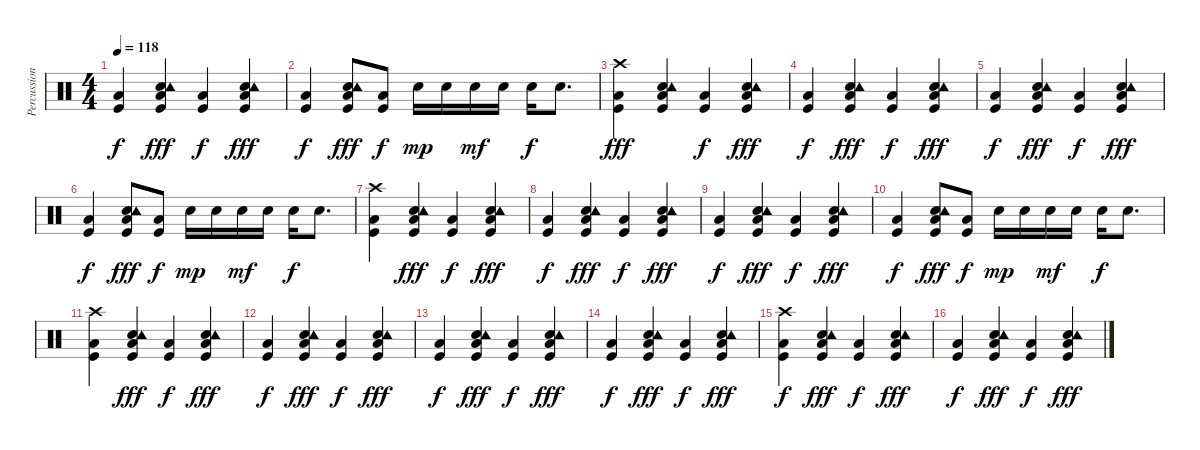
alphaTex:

\track ("Percussion" "Percussion") {instrument percussion}
\staff {score}
\articulation defaults
\ts (4 4)
\tempo 118
\clef neutral
\ks c
("Kick (hit)" "Low Floor Tom (hit)").4{dy f} ("Snare (hit) 2" "Tambourine (hit)" "Kick (hit)" "Low Floor Tom (hit)").4{dy fff} ("Kick (hit)" "Low Floor Tom (hit)").4{dy f} ("Snare (hit) 2" "Tambourine (hit)" "Kick (hit)" "Low Floor Tom (hit)").4{dy fff} |
("Kick (hit)" "Low Floor Tom (hit)").4{dy f} ("Snare (hit) 2" "Tambourine (hit)" "Kick (hit)" "Low Floor Tom (hit)").8{dy fff} ("Kick (hit)" "Low Floor Tom (hit)").8{dy f} "Snare (hit) 2".16{dy mp} "Snare (hit) 2".16 "Snare (hit) 2".16{dy mf} "Snare (hit) 2".16 "Snare (hit) 2".16{dy f} "Snare (hit) 2".8{d} |
("Crash high (hit)" "Kick (hit)" "Low Floor Tom (hit)").4{dy fff} ("Snare (hit) 2" "Tambourine (hit)" "Kick (hit)" "Low Floor Tom (hit)").4 ("Kick (hit)" "Low Floor Tom (hit)").4{dy f} ("Snare (hit) 2" "Tambourine (hit)" "Kick (hit)" "Low Floor Tom (hit)").4{dy fff} |
("Kick (hit)" "Low Floor Tom (hit)").4{dy f} ("Snare (hit) 2" "Tambourine (hit)" "Kick (hit)" "Low Floor Tom (hit)").4{dy fff} ("Kick (hit)" "Low Floor Tom (hit)").4{dy f} ("Snare (hit) 2" "Tambourine (hit)" "Kick (hit)" "Low Floor Tom (hit)").4{dy fff} |
("Kick (hit)" "Low Floor Tom (hit)").4{dy f} ("Snare (hit) 2" "Tambourine (hit)" "Kick (hit)" "Low Floor Tom (hit)").4{dy fff} ("Kick (hit)" "Low Floor Tom (hit)").4{dy f} ("Snare (hit) 2" "Tambourine (hit)" "Kick (hit)" "Low Floor Tom (hit)").4{dy fff} |
("Kick (hit)" "Low Floor Tom (hit)").4{dy f} ("Snare (hit) 2" "Tambourine (hit)" "Kick (hit)" "Low Floor Tom (hit)").8{dy fff} ("Low Floor Tom (hit)" "Kick (hit)").8{dy f} "Snare (hit) 2".16{dy mp} "Snare (hit) 2".16 "Snare (hit) 2".16{dy mf} "Snare (hit) 2".16 "Snare (hit) 2".16{dy f} "Snare (hit) 2".8{d} |
("Crash high (hit)" "Kick (hit)" "Low Floor Tom (hit)").4 ("Snare (hit) 2" "Tambourine (hit)" "Kick (hit)" "Low Floor Tom (hit)").4{dy fff} ("Kick (hit)" "Low Floor Tom (hit)").4{dy f} ("Snare (hit) 2" "Tambourine (hit)" "Kick (hit)" "Low Floor Tom (hit)").4{dy fff} |
("Kick (hit)" "Low Floor Tom (hit)").4{dy f} ("Snare (hit) 2" "Tambourine (hit)" "Kick (hit)" "Low Floor Tom (hit)").4{dy fff} ("Kick (hit)" "Low Floor Tom (hit)").4{dy f} ("Snare (hit) 2" "Tambourine (hit)" "Kick (hit)" "Low Floor Tom (hit)").4{dy fff} |
("Kick (hit)" "Low Floor Tom (hit)").4{dy f} ("Snare (hit) 2" "Tambourine (hit)" "Kick (hit)" "Low Floor Tom (hit)").4{dy fff} ("Kick (hit)" "Low Floor Tom (hit)").4{dy f} ("Snare (hit) 2" "Tambourine (hit)" "Kick (hit)" "Low Floor Tom (hit)").4{dy fff} |
("Kick (hit)" "Low Floor Tom (hit)").4{dy f} ("Snare (hit) 2" "Tambourine (hit)" "Kick (hit)" "Low Floor Tom (hit)").8{dy fff} ("Kick (hit)" "Low Floor Tom (hit)").8{dy f} "Snare (hit) 2".16{dy mp} "Snare (hit) 2".16 "Snare (hit) 2".16{dy mf} "Snare (hit) 2".16 "Snare (hit) 2".16{dy f} "Snare (hit) 2".8{d} |
("Crash high (hit)" "Kick (hit)" "Low Floor Tom (hit)").4 ("Snare (hit) 2" "Tambourine (hit)" "Kick (hit)" "Low Floor Tom (hit)").4{dy fff} ("Kick (hit)" "Low Floor Tom (hit)").4{dy f} ("Snare (hit) 2" "Tambourine (hit)" "Kick (hit)" "Low Floor Tom (hit)").4{dy fff} |
("Kick (hit)" "Low Floor Tom (hit)").4{dy f} ("Snare (hit) 2" "Tambourine (hit)" "Kick (hit)" "Low Floor Tom (hit)").4{dy fff} ("Kick (hit)" "Low Floor Tom (hit)").4{dy f} ("Snare (hit) 2" "Tambourine (hit)" "Kick (hit)" "Low Floor Tom (hit)").4{dy fff} |
("Kick (hit)" "Low Floor Tom (hit)").4{dy f} ("Snare (hit) 2" "Tambourine (hit)" "Kick (hit)" "Low Floor Tom (hit)").4{dy fff} ("Kick (hit)" "Low Floor Tom (hit)").4{dy f} ("Snare (hit) 2" "Tambourine (hit)" "Kick (hit)" "Low Floor Tom (hit)").4{dy fff} |
("Kick (hit)" "Low Floor Tom (hit)").4{dy f} ("Snare (hit) 2" "Tambourine (hit)" "Kick (hit)" "Low Floor Tom (hit)").4{dy fff} ("Kick (hit)" "Low Floor Tom (hit)").4{dy f} ("Snare (hit) 2" "Tambourine (hit)" "Kick (hit)" "Low Floor Tom (hit)").4{dy fff} |
("Crash high (hit)" "Kick (hit)" "Low Floor Tom (hit)").4{dy f} ("Snare (hit) 2" "Tambourine (hit)" "Kick (hit)" "Low Floor Tom (hit)").4{dy fff} ("Kick (hit)" "Low Floor Tom (hit)").4{dy f} ("Snare (hit) 2" "Tambourine (hit)" "Kick (hit)" "Low Floor Tom (hit)").4{dy fff} |
("Kick (hit)" "Low Floor Tom (hit)").4{dy f} ("Snare (hit) 2" "Tambourine (hit)" "Kick (hit)" "Low Floor Tom (hit)").4{dy fff} ("Kick (hit)" "Low Floor Tom (hit)").4{dy f} ("Snare (hit) 2" "Tambourine (hit)" "Kick (hit)" "Low Floor Tom (hit)").4{dy fff}
